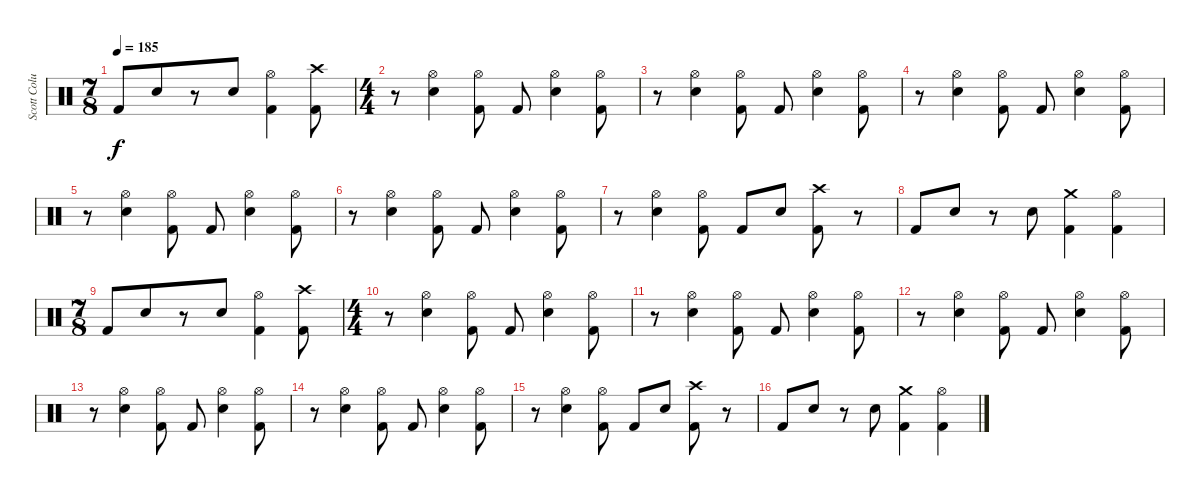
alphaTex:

\track ("Scott Columbus" "Scott Colu") {instrument percussion}
\staff {score}
\articulation defaults
\ts (7 8)
\tempo 185
\clef neutral
\ks c "Kick (hit) 2".8{dy f} "Snare (hit) 2".8
r.8 "Snare (hit) 2".8 ("Hi-Hat (open)" "Kick (hit) 2").4 ("Crash high (hit)" "Kick (hit) 2").8 |
\ts (4 4)
r.8 ("Hi-Hat (open)" "Snare (hit) 2").4 ("Hi-Hat (open)" "Kick (hit) 2").8 "Kick (hit) 2".8 ("Hi-Hat (open)" "Snare (hit) 2").4 ("Hi-Hat (open)" "Kick (hit) 2").8 |
r.8 ("Hi-Hat (open)" "Snare (hit) 2").4 ("Hi-Hat (open)" "Kick (hit) 2").8 "Kick (hit) 2".8 ("Hi-Hat (open)" "Snare (hit) 2").4 ("Hi-Hat (open)" "Kick (hit) 2").8 |
r.8 ("Hi-Hat (open)" "Snare (hit) 2").4 ("Hi-Hat (open)" "Kick (hit) 2").8 "Kick (hit) 2".8 ("Hi-Hat (open)" "Snare (hit) 2").4 ("Hi-Hat (open)" "Kick (hit) 2").8 |
r.8 ("Hi-Hat (open)" "Snare (hit) 2").4 ("Hi-Hat (open)" "Kick (hit) 2").8 "Kick (hit) 2".8 ("Hi-Hat (open)" "Snare (hit) 2").4 ("Hi-Hat (open)" "Kick (hit) 2").8 |
r.8 ("Hi-Hat (open)" "Snare (hit) 2").4 ("Hi-Hat (open)" "Kick (hit) 2").8 "Kick (hit) 2".8 ("Hi-Hat (open)" "Snare (hit) 2").4 ("Hi-Hat (open)" "Kick (hit) 2").8 |
r.8 ("Hi-Hat (open)" "Snare (hit) 2").4 ("Hi-Hat (open)" "Kick (hit) 2").8 "Kick (hit) 2".8 "Snare (hit) 2".8 ("Crash high (hit)" "Kick (hit) 2").8 r.8 |
"Kick (hit) 2".8 "Snare (hit) 2".8 r.8 "Snare (hit) 2".8 ("Crash medium (hit)" "Kick (hit) 2").4 ("Hi-Hat (open)" "Kick (hit) 2").4 |
\ts (7 8)
"Kick (hit) 2".8 "Snare (hit) 2".8 r.8 "Snare (hit) 2".8 ("Hi-Hat (open)" "Kick (hit) 2").4 ("Crash high (hit)" "Kick (hit) 2").8 |
\ts (4 4)
r.8 ("Hi-Hat (open)" "Snare (hit) 2").4 ("Hi-Hat (open)" "Kick (hit) 2").8 "Kick (hit) 2".8 ("Hi-Hat (open)" "Snare (hit) 2").4 ("Hi-Hat (open)" "Kick (hit) 2").8 |
r.8 ("Hi-Hat (open)" "Snare (hit) 2").4 ("Hi-Hat (open)" "Kick (hit) 2").8 "Kick (hit) 2".8 ("Hi-Hat (open)" "Snare (hit) 2").4 ("Hi-Hat (open)" "Kick (hit) 2").8 |
r.8 ("Hi-Hat (open)" "Snare (hit) 2").4 ("Hi-Hat (open)" "Kick (hit) 2").8 "Kick (hit) 2".8 ("Hi-Hat (open)" "Snare (hit) 2").4 ("Hi-Hat (open)" "Kick (hit) 2").8 |
r.8 ("Hi-Hat (open)" "Snare (hit) 2").4 ("Hi-Hat (open)" "Kick (hit) 2").8 "Kick (hit) 2".8 ("Hi-Hat (open)" "Snare (hit) 2").4 ("Hi-Hat (open)" "Kick (hit) 2").8 |
r.8 ("Hi-Hat (open)" "Snare (hit) 2").4 ("Hi-Hat (open)" "Kick (hit) 2").8 "Kick (hit) 2".8 ("Hi-Hat (open)" "Snare (hit) 2").4 ("Hi-Hat (open)" "Kick (hit) 2").8 |
r.8 ("Hi-Hat (open)" "Snare (hit) 2").4 ("Hi-Hat (open)" "Kick (hit) 2").8 "Kick (hit) 2".8 "Snare (hit) 2".8 ("Crash high (hit)" "Kick (hit) 2").8 r.8 |
"Kick (hit) 2".8 "Snare (hit) 2".8 r.8 "Snare (hit) 2".8 ("Crash medium (hit)" "Kick (hit) 2").4 ("Hi-Hat (open)" "Kick (hit) 2").4
